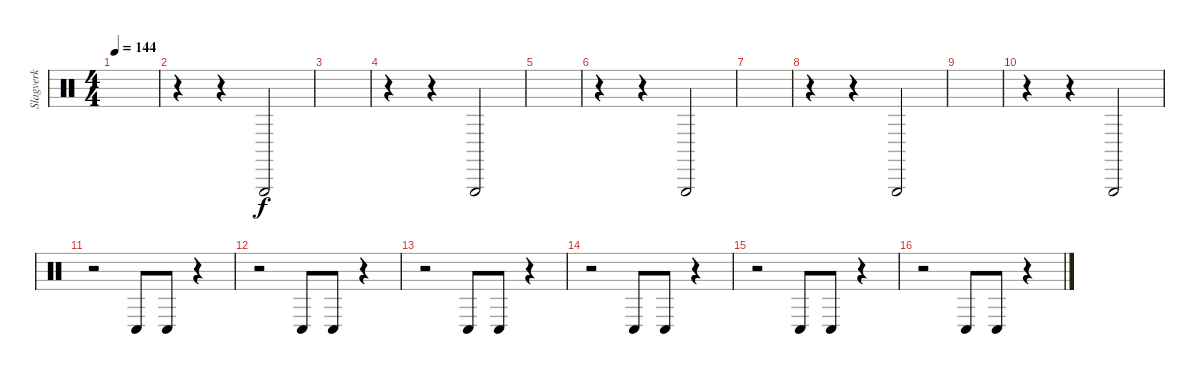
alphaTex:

\track ("Slagverk" "Slagverk") {instrument percussion}
\staff {score}
\articulation defaults
\ts (4 4)
\tempo 144
\clef neutral
\ks c
|
r.4 r.4 "Triangle (hit)".2 |
|
r.4 r.4 "Triangle (hit)".2 |
|
r.4 r.4 "Triangle (hit)".2 |
|
r.4 r.4 "Triangle (hit)".2 |
|
r.4 r.4 "Triangle (hit)".2 |
r.2 "Conga low (hit)".8 "Conga low (hit)".8 r.4 |
r.2 "Conga low (hit)".8 "Conga low (hit)".8 r.4 |
r.2 "Conga low (hit)".8 "Conga low (hit)".8 r.4 |
r.2 "Conga low (hit)".8 "Conga low (hit)".8 r.4 |
r.2 "Conga low (hit)".8 "Conga low (hit)".8 r.4 |
r.2 "Conga low (hit)".8 "Conga low (hit)".8 r.4
